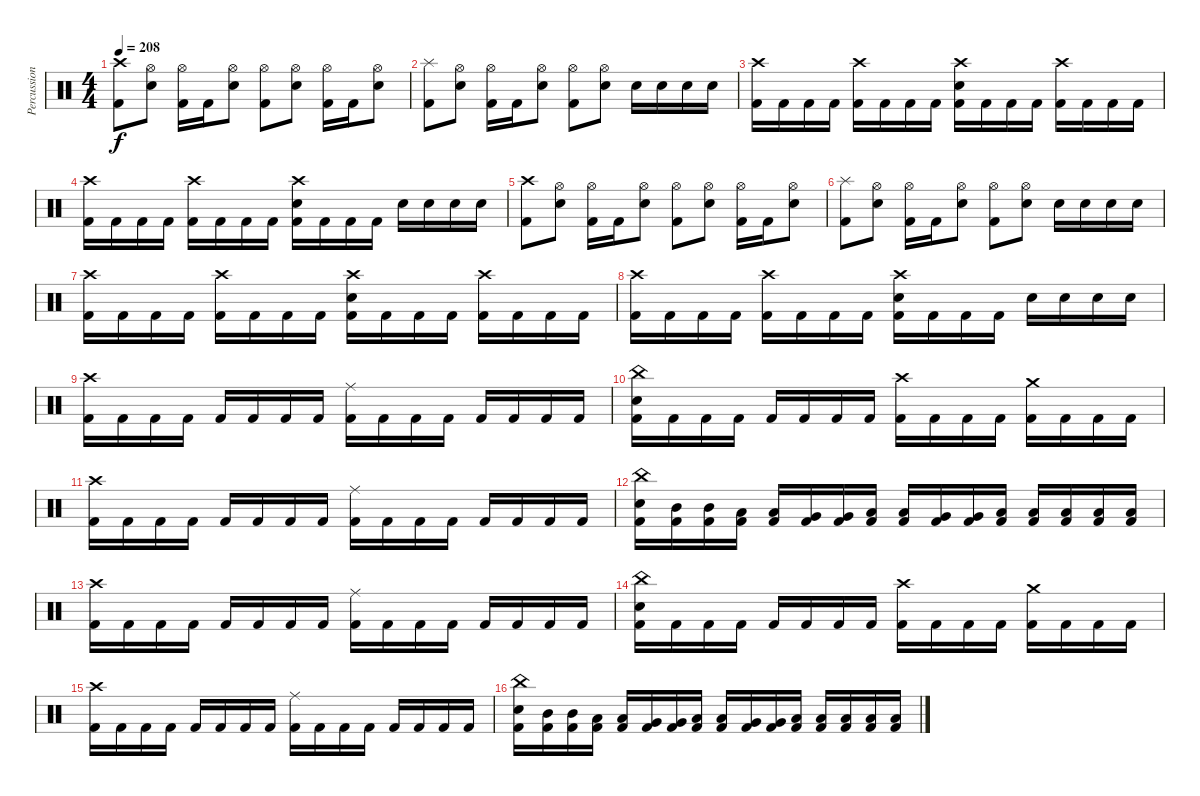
\track ("Percussion" "Percussion") {instrument percussion}
\staff {score}
\articulation defaults
\ts (4 4)
\tempo 208
\clef neutral
\ks c
("Crash high (hit)" "Kick (hit) 2").8{dy f} ("Hi-Hat (open)" "Snare (hit) 2").8 ("Hi-Hat (open)" "Kick (hit) 2").16 "Kick (hit) 2".16 ("Hi-Hat (open)" "Snare (hit) 2").8 ("Hi-Hat (open)" "Kick (hit) 2").8 ("Hi-Hat (open)" "Snare (hit) 2").8 ("Hi-Hat (open)" "Kick (hit) 2").16 "Kick (hit) 2".16 ("Hi-Hat (open)" "Snare (hit) 2").8 |
("Splash (hit)" "Kick (hit) 2").8 ("Hi-Hat (open)" "Snare (hit) 2").8 ("Hi-Hat (open)" "Kick (hit) 2").16 "Kick (hit) 2".16 ("Hi-Hat (open)" "Snare (hit) 2").8 ("Hi-Hat (open)" "Kick (hit) 2").8 ("Hi-Hat (open)" "Snare (hit) 2").8 "Snare (hit) 2".16 "Snare (hit) 2".16 "Snare (hit) 2".16 "Snare (hit) 2".16 |
("Crash high (hit)" "Kick (hit) 2").16 "Kick (hit) 2".16 "Kick (hit) 2".16 "Kick (hit) 2".16 ("Crash high (hit)" "Kick (hit) 2").16 "Kick (hit) 2".16 "Kick (hit) 2".16 "Kick (hit) 2".16 ("Crash high (hit)" "Snare (hit) 2" "Kick (hit) 2").16 "Kick (hit) 2".16 "Kick (hit) 2".16 "Kick (hit) 2".16 ("Crash high (hit)" "Kick (hit) 2").16 "Kick (hit) 2".16 "Kick (hit) 2".16 "Kick (hit) 2".16 |
("Crash high (hit)" "Kick (hit) 2").16 "Kick (hit) 2".16 "Kick (hit) 2".16 "Kick (hit) 2".16 ("Crash high (hit)" "Kick (hit) 2").16 "Kick (hit) 2".16 "Kick (hit) 2".16 "Kick (hit) 2".16 ("Crash high (hit)" "Snare (hit) 2" "Kick (hit) 2").16 "Kick (hit) 2".16 "Kick (hit) 2".16 "Kick (hit) 2".16 "Snare (hit) 2".16 "Snare (hit) 2".16 "Snare (hit) 2".16 "Snare (hit) 2".16 |
("Crash high (hit)" "Kick (hit) 2").8 ("Hi-Hat (open)" "Snare (hit) 2").8 ("Hi-Hat (open)" "Kick (hit) 2").16 "Kick (hit) 2".16 ("Hi-Hat (open)" "Snare (hit) 2").8 ("Hi-Hat (open)" "Kick (hit) 2").8 ("Hi-Hat (open)" "Snare (hit) 2").8 ("Hi-Hat (open)" "Kick (hit) 2").16 "Kick (hit) 2".16 ("Hi-Hat (open)" "Snare (hit) 2").8 |
("Splash (hit)" "Kick (hit) 2").8 ("Hi-Hat (open)" "Snare (hit) 2").8 ("Hi-Hat (open)" "Kick (hit) 2").16 "Kick (hit) 2".16 ("Hi-Hat (open)" "Snare (hit) 2").8 ("Hi-Hat (open)" "Kick (hit) 2").8 ("Hi-Hat (open)" "Snare (hit) 2").8 "Snare (hit) 2".16 "Snare (hit) 2".16 "Snare (hit) 2".16 "Snare (hit) 2".16 |
("Crash high (hit)" "Kick (hit) 2").16 "Kick (hit) 2".16 "Kick (hit) 2".16 "Kick (hit) 2".16 ("Crash high (hit)" "Kick (hit) 2").16 "Kick (hit) 2".16 "Kick (hit) 2".16 "Kick (hit) 2".16 ("Crash high (hit)" "Snare (hit) 2" "Kick (hit) 2").16 "Kick (hit) 2".16 "Kick (hit) 2".16 "Kick (hit) 2".16 ("Crash high (hit)" "Kick (hit) 2").16 "Kick (hit) 2".16 "Kick (hit) 2".16 "Kick (hit) 2".16 |
("Crash high (hit)" "Kick (hit) 2").16 "Kick (hit) 2".16 "Kick (hit) 2".16 "Kick (hit) 2".16 ("Crash high (hit)" "Kick (hit) 2").16 "Kick (hit) 2".16 "Kick (hit) 2".16 "Kick (hit) 2".16 ("Crash high (hit)" "Snare (hit) 2" "Kick (hit) 2").16 "Kick (hit) 2".16 "Kick (hit) 2".16 "Kick (hit) 2".16 "Snare (hit) 2".16 "Snare (hit) 2".16 "Snare (hit) 2".16 "Snare (hit) 2".16 |
("Crash high (hit)" "Kick (hit) 2").16 "Kick (hit) 2".16 "Kick (hit) 2".16 "Kick (hit) 2".16 "Kick (hit) 2".16 "Kick (hit) 2".16 "Kick (hit) 2".16 "Kick (hit) 2".16 ("Ride (middle)" "Kick (hit) 2").16 "Kick (hit) 2".16 "Kick (hit) 2".16 "Kick (hit) 2".16 "Kick (hit) 2".16 "Kick (hit) 2".16 "Kick (hit) 2".16 "Kick (hit) 2".16 |
("China (hit)" "Snare (hit) 2" "Kick (hit) 2").16 "Kick (hit) 2".16 "Kick (hit) 2".16 "Kick (hit) 2".16 "Kick (hit) 2".16 "Kick (hit) 2".16 "Kick (hit) 2".16 "Kick (hit) 2".16 ("Crash high (hit)" "Kick (hit) 2").16 "Kick (hit) 2".16 "Kick (hit) 2".16 "Kick (hit) 2".16 ("Crash medium (hit)" "Kick (hit) 2").16 "Kick (hit) 2".16 "Kick (hit) 2".16 "Kick (hit) 2".16 |
("Crash high (hit)" "Kick (hit) 2").16 "Kick (hit) 2".16 "Kick (hit) 2".16 "Kick (hit) 2".16 "Kick (hit) 2".16 "Kick (hit) 2".16 "Kick (hit) 2".16 "Kick (hit) 2".16 ("Ride (middle)" "Kick (hit) 2").16 "Kick (hit) 2".16 "Kick (hit) 2".16 "Kick (hit) 2".16 "Kick (hit) 2".16 "Kick (hit) 2".16 "Kick (hit) 2".16 "Kick (hit) 2".16 |
("China (hit)" "Snare (hit) 2" "Kick (hit) 2").16 ("Mid Tom (hit)" "Kick (hit) 2").16 ("Mid Tom (hit)" "Kick (hit) 2").16 ("Low Tom (hit)" "Kick (hit) 2").16 ("Low Tom (hit)" "Kick (hit) 2").16 ("Very Low Tom (hit)" "Kick (hit) 2").16 ("Very Low Tom (hit)" "Kick (hit) 2").16 ("Low Tom (hit)" "Kick (hit) 2").16 ("Low Tom (hit)" "Kick (hit) 2").16 ("Very Low Tom (hit)" "Kick (hit) 2").16 ("Very Low Tom (hit)" "Kick (hit) 2").16 ("Low Tom (hit)" "Kick (hit) 2").16 ("Low Tom (hit)" "Kick (hit) 2").16 ("Low Floor Tom (hit)" "Kick (hit) 2").16 ("Low Floor Tom (hit)" "Kick (hit) 2").16 ("Low Floor Tom (hit)" "Kick (hit) 2").16 |
("Crash high (hit)" "Kick (hit) 2").16 "Kick (hit) 2".16 "Kick (hit) 2".16 "Kick (hit) 2".16 "Kick (hit) 2".16 "Kick (hit) 2".16 "Kick (hit) 2".16 "Kick (hit) 2".16 ("Ride (middle)" "Kick (hit) 2").16 "Kick (hit) 2".16 "Kick (hit) 2".16 "Kick (hit) 2".16 "Kick (hit) 2".16 "Kick (hit) 2".16 "Kick (hit) 2".16 "Kick (hit) 2".16 |
("China (hit)" "Snare (hit) 2" "Kick (hit) 2").16 "Kick (hit) 2".16 "Kick (hit) 2".16 "Kick (hit) 2".16 "Kick (hit) 2".16 "Kick (hit) 2".16 "Kick (hit) 2".16 "Kick (hit) 2".16 ("Crash high (hit)" "Kick (hit) 2").16 "Kick (hit) 2".16 "Kick (hit) 2".16 "Kick (hit) 2".16 ("Crash medium (hit)" "Kick (hit) 2").16 "Kick (hit) 2".16 "Kick (hit) 2".16 "Kick (hit) 2".16 |
("Crash high (hit)" "Kick (hit) 2").16 "Kick (hit) 2".16 "Kick (hit) 2".16 "Kick (hit) 2".16 "Kick (hit) 2".16 "Kick (hit) 2".16 "Kick (hit) 2".16 "Kick (hit) 2".16 ("Ride (middle)" "Kick (hit) 2").16 "Kick (hit) 2".16 "Kick (hit) 2".16 "Kick (hit) 2".16 "Kick (hit) 2".16 "Kick (hit) 2".16 "Kick (hit) 2".16 "Kick (hit) 2".16 |
("China (hit)" "Snare (hit) 2" "Kick (hit) 2").16 ("Mid Tom (hit)" "Kick (hit) 2").16 ("Mid Tom (hit)" "Kick (hit) 2").16 ("Low Tom (hit)" "Kick (hit) 2").16 ("Low Tom (hit)" "Kick (hit) 2").16 ("Very Low Tom (hit)" "Kick (hit) 2").16 ("Very Low Tom (hit)" "Kick (hit) 2").16 ("Low Tom (hit)" "Kick (hit) 2").16 ("Low Tom (hit)" "Kick (hit) 2").16 ("Very Low Tom (hit)" "Kick (hit) 2").16 ("Very Low Tom (hit)" "Kick (hit) 2").16 ("Low Tom (hit)" "Kick (hit) 2").16 ("Low Tom (hit)" "Kick (hit) 2").16 ("Low Floor Tom (hit)" "Kick (hit) 2").16 ("Low Floor Tom (hit)" "Kick (hit) 2").16 ("Low Floor Tom (hit)" "Kick (hit) 2").16
